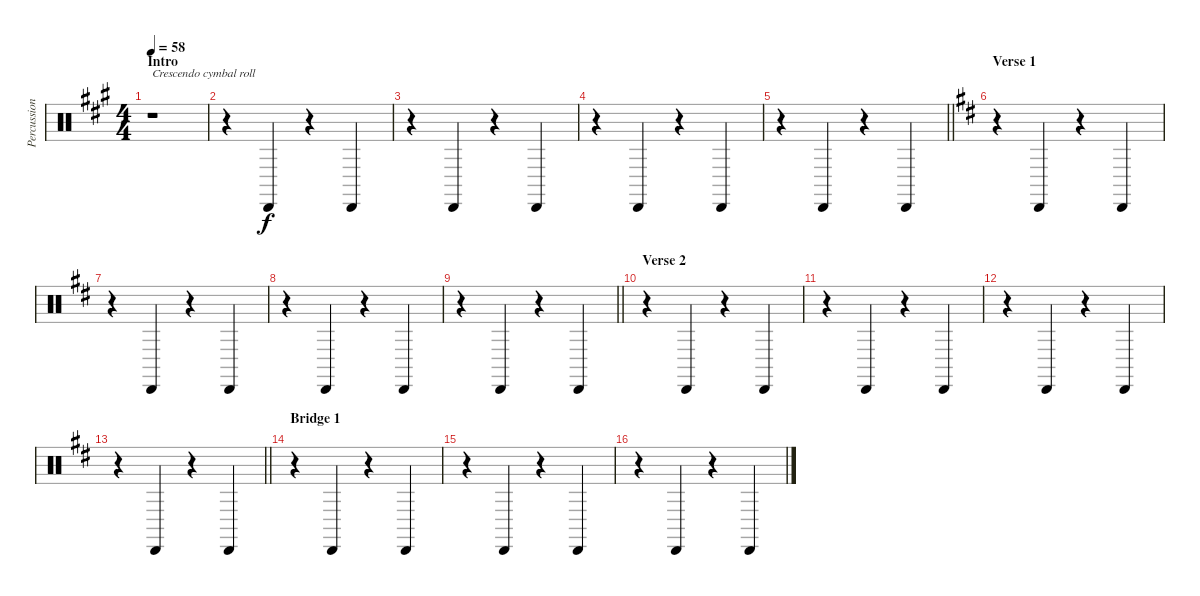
\track ("Percussion" "Percussion") {instrument percussion}
\staff {score}
\articulation defaults
\ts (4 4)
\section ("" "Intro")
\tempo 58
\clef neutral
\ks f#minor
r.1{txt "Crescendo cymbal roll" dy f} |
r.4 "Cabasa (hit)".4 r.4 "Cabasa (hit)".4 |
r.4 "Cabasa (hit)".4 r.4 "Cabasa (hit)".4 |
r.4 "Cabasa (hit)".4 r.4 "Cabasa (hit)".4 |
\barLineRight lightlight
r.4 "Cabasa (hit)".4 r.4 "Cabasa (hit)".4 |
\section ("" "Verse 1")
\ks bminor
r.4 "Cabasa (hit)".4 r.4 "Cabasa (hit)".4 |
r.4 "Cabasa (hit)".4 r.4 "Cabasa (hit)".4 |
r.4 "Cabasa (hit)".4 r.4 "Cabasa (hit)".4 |
\barLineRight lightlight
r.4 "Cabasa (hit)".4 r.4 "Cabasa (hit)".4 |
\section ("" "Verse 2")
r.4 "Cabasa (hit)".4 r.4 "Cabasa (hit)".4 |
r.4 "Cabasa (hit)".4 r.4 "Cabasa (hit)".4 |
r.4 "Cabasa (hit)".4 r.4 "Cabasa (hit)".4 |
\barLineRight lightlight
r.4 "Cabasa (hit)".4 r.4 "Cabasa (hit)".4 |
\section ("" "Bridge 1")
r.4 "Cabasa (hit)".4 r.4 "Cabasa (hit)".4 |
r.4 "Cabasa (hit)".4 r.4 "Cabasa (hit)".4 |
r.4 "Cabasa (hit)".4 r.4 "Cabasa (hit)".4
